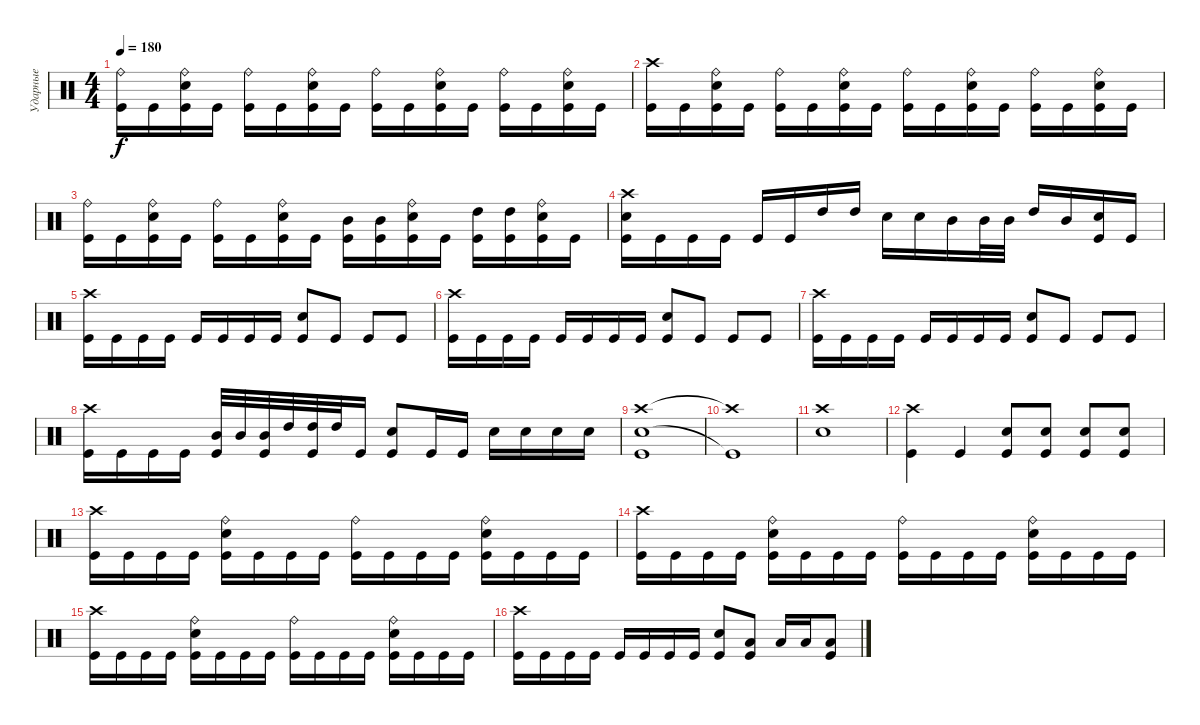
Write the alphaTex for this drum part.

\track ("Ударные" "Ударные") {instrument percussion}
\staff {score}
\articulation defaults
\ts (4 4)
\tempo 180
\clef neutral
\ks c
("Ride (bell)" "Kick (hit)").16{dy f} "Kick (hit)".16 ("Ride (bell)" "Electric Snare (hit)" "Kick (hit)").16 "Kick (hit)".16 ("Ride (bell)" "Kick (hit)").16 "Kick (hit)".16 ("Ride (bell)" "Electric Snare (hit)" "Kick (hit)").16 "Kick (hit)".16 ("Ride (bell)" "Kick (hit)").16 "Kick (hit)".16 ("Ride (bell)" "Electric Snare (hit)" "Kick (hit)").16 "Kick (hit)".16 ("Ride (bell)" "Kick (hit)").16 "Kick (hit)".16 ("Ride (bell)" "Electric Snare (hit)" "Kick (hit)").16 "Kick (hit)".16 |
("Crash high (hit)" "Kick (hit)").16 "Kick (hit)".16 ("Ride (bell)" "Electric Snare (hit)" "Kick (hit)").16 "Kick (hit)".16 ("Ride (bell)" "Kick (hit)").16 "Kick (hit)".16 ("Ride (bell)" "Electric Snare (hit)" "Kick (hit)").16 "Kick (hit)".16 ("Ride (bell)" "Kick (hit)").16 "Kick (hit)".16 ("Ride (bell)" "Electric Snare (hit)" "Kick (hit)").16 "Kick (hit)".16 ("Ride (bell)" "Kick (hit)").16 "Kick (hit)".16 ("Ride (bell)" "Electric Snare (hit)" "Kick (hit)").16 "Kick (hit)".16 |
("Ride (bell)" "Kick (hit)").16 "Kick (hit)".16 ("Ride (bell)" "Electric Snare (hit)" "Kick (hit)").16 "Kick (hit)".16 ("Ride (bell)" "Kick (hit)").16 "Kick (hit)".16 ("Ride (bell)" "Electric Snare (hit)" "Kick (hit)").16 "Kick (hit)".16 ("Mid Tom (hit)" "Kick (hit)").16 ("Mid Tom (hit)" "Kick (hit)").16 ("Ride (bell)" "Electric Snare (hit)" "Kick (hit)").16 "Kick (hit)".16 ("High Tom (hit)" "Kick (hit)").16 ("High Tom (hit)" "Kick (hit)").16 ("Ride (bell)" "Electric Snare (hit)" "Kick (hit)").16 "Kick (hit)".16 |
("Crash high (hit)" "Electric Snare (hit)" "Kick (hit)").16 "Kick (hit)".16 "Kick (hit)".16 "Kick (hit)".16 "Kick (hit)".16 "Kick (hit)".16 "High Tom (hit)".16 "High Tom (hit)".16 "Electric Snare (hit)".16 "Electric Snare (hit)".16 "Mid Tom (hit)".16 "Mid Tom (hit)".32 "Mid Tom (hit)".32 "High Tom (hit)".16 "Mid Tom (hit)".16 ("Electric Snare (hit)" "Kick (hit)").16 "Kick (hit)".16 |
("Crash high (hit)" "Kick (hit)").16 "Kick (hit)".16 "Kick (hit)".16 "Kick (hit)".16 "Kick (hit)".16 "Kick (hit)".16 "Kick (hit)".16 "Kick (hit)".16 ("Electric Snare (hit)" "Kick (hit)").8 "Kick (hit)".8 "Kick (hit)".8 "Kick (hit)".8 |
("Crash high (hit)" "Kick (hit)").16 "Kick (hit)".16 "Kick (hit)".16 "Kick (hit)".16 "Kick (hit)".16 "Kick (hit)".16 "Kick (hit)".16 "Kick (hit)".16 ("Electric Snare (hit)" "Kick (hit)").8 "Kick (hit)".8 "Kick (hit)".8 "Kick (hit)".8 |
("Crash high (hit)" "Kick (hit)").16 "Kick (hit)".16 "Kick (hit)".16 "Kick (hit)".16 "Kick (hit)".16 "Kick (hit)".16 "Kick (hit)".16 "Kick (hit)".16 ("Electric Snare (hit)" "Kick (hit)").8 "Kick (hit)".8 "Kick (hit)".8 "Kick (hit)".8 |
("Crash high (hit)" "Kick (hit)").16 "Kick (hit)".16 "Kick (hit)".16 "Kick (hit)".16 ("Mid Tom (hit)" "Kick (hit)").32 "Mid Tom (hit)".32 ("Mid Tom (hit)" "Kick (hit)").32 "High Tom (hit)".32 ("High Tom (hit)" "Kick (hit)").32 "High Tom (hit)".32 "Kick (hit)".16 ("Electric Snare (hit)" "Kick (hit)").8 "Kick (hit)".16 "Kick (hit)".16 "Electric Snare (hit)".16 "Electric Snare (hit)".16 "Electric Snare (hit)".16 "Electric Snare (hit)".16 |
("Crash high (hit)" "Electric Snare (hit)" "Kick (hit)").1 |
("Crash high (hit)"{t} "Kick (hit)"{t}).1 |
("Crash high (hit)" "Electric Snare (hit)").1 |
("Crash high (hit)" "Kick (hit)").4 "Kick (hit)".4 ("Electric Snare (hit)" "Kick (hit)").8 ("Electric Snare (hit)" "Kick (hit)").8 ("Electric Snare (hit)" "Kick (hit)").8 ("Electric Snare (hit)" "Kick (hit)").8 |
("Crash high (hit)" "Kick (hit)").16 "Kick (hit)".16 "Kick (hit)".16 "Kick (hit)".16 ("Ride (bell)" "Electric Snare (hit)" "Kick (hit)").16 "Kick (hit)".16 "Kick (hit)".16 "Kick (hit)".16 ("Ride (bell)" "Kick (hit)").16 "Kick (hit)".16 "Kick (hit)".16 "Kick (hit)".16 ("Ride (bell)" "Electric Snare (hit)" "Kick (hit)").16 "Kick (hit)".16 "Kick (hit)".16 "Kick (hit)".16 |
("Crash high (hit)" "Kick (hit)").16 "Kick (hit)".16 "Kick (hit)".16 "Kick (hit)".16 ("Ride (bell)" "Electric Snare (hit)" "Kick (hit)").16 "Kick (hit)".16 "Kick (hit)".16 "Kick (hit)".16 ("Ride (bell)" "Kick (hit)").16 "Kick (hit)".16 "Kick (hit)".16 "Kick (hit)".16 ("Ride (bell)" "Electric Snare (hit)" "Kick (hit)").16 "Kick (hit)".16 "Kick (hit)".16 "Kick (hit)".16 |
("Crash high (hit)" "Kick (hit)").16 "Kick (hit)".16 "Kick (hit)".16 "Kick (hit)".16 ("Ride (bell)" "Electric Snare (hit)" "Kick (hit)").16 "Kick (hit)".16 "Kick (hit)".16 "Kick (hit)".16 ("Ride (bell)" "Kick (hit)").16 "Kick (hit)".16 "Kick (hit)".16 "Kick (hit)".16 ("Ride (bell)" "Electric Snare (hit)" "Kick (hit)").16 "Kick (hit)".16 "Kick (hit)".16 "Kick (hit)".16 |
("Crash high (hit)" "Kick (hit)").16 "Kick (hit)".16 "Kick (hit)".16 "Kick (hit)".16 "Kick (hit)".16 "Kick (hit)".16 "Kick (hit)".16 "Kick (hit)".16 ("Electric Snare (hit)" "Kick (hit)").8 ("Low Tom (hit)" "Kick (hit)").8 "Low Tom (hit)".16 "Low Tom (hit)".16 ("Low Tom (hit)" "Kick (hit)").8
